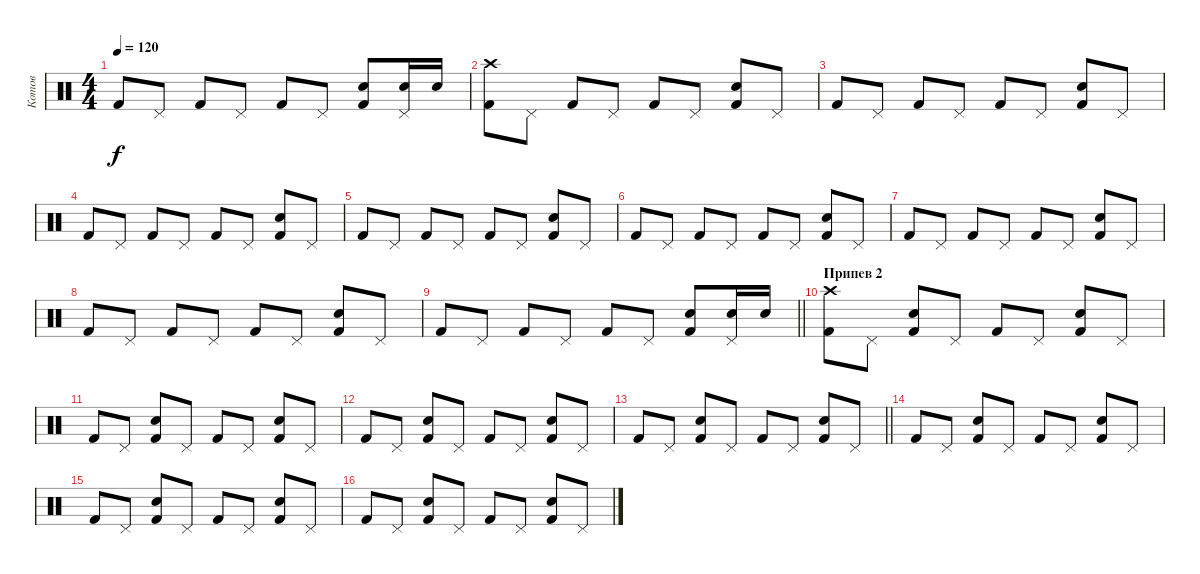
\track ("Котов" "Котов") {instrument percussion}
\staff {score}
\articulation defaults
\ts (4 4)
\tempo 120
\clef neutral
\ks c "Kick (hit) 2".8{dy f} "Pedal Hi-Hat (hit)".8 "Kick (hit) 2".8 "Pedal Hi-Hat (hit)".8 "Kick (hit) 2".8 "Pedal Hi-Hat (hit)".8
("Kick (hit) 2" "Snare (hit) 2").8 ("Pedal Hi-Hat (hit)" "Snare (hit) 2").16 "Snare (hit) 2".16 |
("Kick (hit) 2" "Crash high (hit)").8 "Pedal Hi-Hat (hit)".8 "Kick (hit) 2".8 "Pedal Hi-Hat (hit)".8 "Kick (hit) 2".8 "Pedal Hi-Hat (hit)".8 ("Kick (hit) 2" "Snare (hit) 2").8 "Pedal Hi-Hat (hit)".8 |
"Kick (hit) 2".8 "Pedal Hi-Hat (hit)".8 "Kick (hit) 2".8 "Pedal Hi-Hat (hit)".8 "Kick (hit) 2".8 "Pedal Hi-Hat (hit)".8 ("Kick (hit) 2" "Snare (hit) 2").8 "Pedal Hi-Hat (hit)".8 |
"Kick (hit) 2".8 "Pedal Hi-Hat (hit)".8 "Kick (hit) 2".8 "Pedal Hi-Hat (hit)".8 "Kick (hit) 2".8 "Pedal Hi-Hat (hit)".8 ("Kick (hit) 2" "Snare (hit) 2").8 "Pedal Hi-Hat (hit)".8 |
"Kick (hit) 2".8 "Pedal Hi-Hat (hit)".8 "Kick (hit) 2".8 "Pedal Hi-Hat (hit)".8 "Kick (hit) 2".8 "Pedal Hi-Hat (hit)".8 ("Kick (hit) 2" "Snare (hit) 2").8 "Pedal Hi-Hat (hit)".8 |
"Kick (hit) 2".8 "Pedal Hi-Hat (hit)".8 "Kick (hit) 2".8 "Pedal Hi-Hat (hit)".8 "Kick (hit) 2".8 "Pedal Hi-Hat (hit)".8 ("Kick (hit) 2" "Snare (hit) 2").8 "Pedal Hi-Hat (hit)".8 |
"Kick (hit) 2".8 "Pedal Hi-Hat (hit)".8 "Kick (hit) 2".8 "Pedal Hi-Hat (hit)".8 "Kick (hit) 2".8 "Pedal Hi-Hat (hit)".8 ("Kick (hit) 2" "Snare (hit) 2").8 "Pedal Hi-Hat (hit)".8 |
"Kick (hit) 2".8 "Pedal Hi-Hat (hit)".8 "Kick (hit) 2".8 "Pedal Hi-Hat (hit)".8 "Kick (hit) 2".8 "Pedal Hi-Hat (hit)".8 ("Kick (hit) 2" "Snare (hit) 2").8 "Pedal Hi-Hat (hit)".8 |
\barLineRight lightlight "Kick (hit) 2".8 "Pedal Hi-Hat (hit)".8 "Kick (hit) 2".8 "Pedal Hi-Hat (hit)".8 "Kick (hit) 2".8 "Pedal Hi-Hat (hit)".8
("Kick (hit) 2" "Snare (hit) 2").8 ("Pedal Hi-Hat (hit)" "Snare (hit) 2").16 "Snare (hit) 2".16 |
\section ("" "Припев 2")
("Kick (hit) 2" "Crash high (hit)").8 "Pedal Hi-Hat (hit)".8 ("Kick (hit) 2" "Snare (hit) 2").8 "Pedal Hi-Hat (hit)".8 "Kick (hit) 2".8 "Pedal Hi-Hat (hit)".8 ("Kick (hit) 2" "Snare (hit) 2").8 "Pedal Hi-Hat (hit)".8 |
"Kick (hit) 2".8 "Pedal Hi-Hat (hit)".8 ("Kick (hit) 2" "Snare (hit) 2").8 "Pedal Hi-Hat (hit)".8 "Kick (hit) 2".8 "Pedal Hi-Hat (hit)".8 ("Kick (hit) 2" "Snare (hit) 2").8 "Pedal Hi-Hat (hit)".8 |
"Kick (hit) 2".8 "Pedal Hi-Hat (hit)".8 ("Kick (hit) 2" "Snare (hit) 2").8 "Pedal Hi-Hat (hit)".8 "Kick (hit) 2".8 "Pedal Hi-Hat (hit)".8 ("Kick (hit) 2" "Snare (hit) 2").8 "Pedal Hi-Hat (hit)".8 |
\barLineRight lightlight "Kick (hit) 2".8 "Pedal Hi-Hat (hit)".8
("Kick (hit) 2" "Snare (hit) 2").8 "Pedal Hi-Hat (hit)".8 "Kick (hit) 2".8 "Pedal Hi-Hat (hit)".8 ("Kick (hit) 2" "Snare (hit) 2").8 "Pedal Hi-Hat (hit)".8 |
"Kick (hit) 2".8 "Pedal Hi-Hat (hit)".8 ("Kick (hit) 2" "Snare (hit) 2").8 "Pedal Hi-Hat (hit)".8 "Kick (hit) 2".8 "Pedal Hi-Hat (hit)".8 ("Kick (hit) 2" "Snare (hit) 2").8 "Pedal Hi-Hat (hit)".8 |
"Kick (hit) 2".8 "Pedal Hi-Hat (hit)".8 ("Kick (hit) 2" "Snare (hit) 2").8 "Pedal Hi-Hat (hit)".8 "Kick (hit) 2".8 "Pedal Hi-Hat (hit)".8 ("Kick (hit) 2" "Snare (hit) 2").8 "Pedal Hi-Hat (hit)".8 |
"Kick (hit) 2".8 "Pedal Hi-Hat (hit)".8 ("Kick (hit) 2" "Snare (hit) 2").8 "Pedal Hi-Hat (hit)".8 "Kick (hit) 2".8 "Pedal Hi-Hat (hit)".8 ("Kick (hit) 2" "Snare (hit) 2").8 "Pedal Hi-Hat (hit)".8
